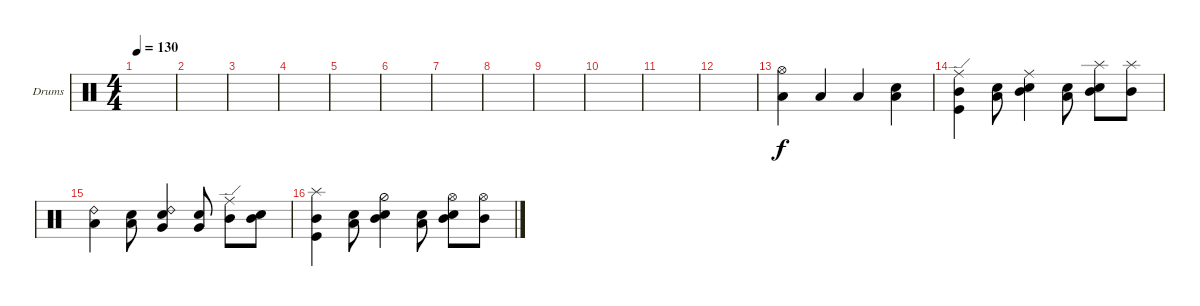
\defaultSystemsLayout 4
\bracketExtendMode groupsimilarinstruments
\firstSystemTrackNameOrientation horizontal
\otherSystemsTrackNameOrientation horizontal
\track ("Drumkit" "Drums") {instrument percussion}
\staff {score}
\articulation defaults
\ts (4 4)
\tempo 130
\clef neutral
\scale
0.333333
\ks c
|
\scale
0.333333 |
\scale
0.333333 |
\scale
0.333333 |
\scale
0.333333 |
\scale
0.333333 |
\scale
0.333333 |
\scale
0.333333 |
\scale
0.333333 |
\scale
0.333333 |
\scale
0.333333 |
\scale
0.333333 |
("Low Tom (hit)" "Hi-Hat (open)").4 "Low Tom (hit)".4 "Low Tom (hit)".4 ("Low Tom (hit)" "Snare (hit) 2").4 |
("Mid Tom (hit)" "Kick (hit)" "Ride (edge)").4 ("Low Tom (hit)" "Snare (hit) 2").8 ("Mid Tom (hit)" "Snare (hit) 2" "Ride (middle)").4 ("Low Tom (hit)" "Snare (hit) 2").8 ("Mid Tom (hit)" "Snare (hit) 2" "Splash (hit)").8 ("Mid Tom (hit)" "Splash (hit)").8 |
("Low Tom (hit)" "Ride (bell) 2").4 ("Low Tom (hit)" "Snare (hit) 2").8 ("Very Low Tom (hit)" "Snare (hit) 2" "Ride (bell) 2").4 ("Very Low Tom (hit)" "Snare (hit) 2").8 ("Mid Tom (hit)" "Ride (edge)").8 ("Mid Tom (hit)" "Snare (hit) 2").8 |
("Mid Tom (hit)" "Kick (hit)" "Splash (hit)").4 ("Low Tom (hit)" "Snare (hit) 2").8 ("Mid Tom (hit)" "Snare (hit) 2" "Hi-Hat (half)").4 ("Low Tom (hit)" "Snare (hit) 2").8 ("Mid Tom (hit)" "Snare (hit) 2" "Hi-Hat (open)").8 ("Mid Tom (hit)" "Hi-Hat (open)").8
